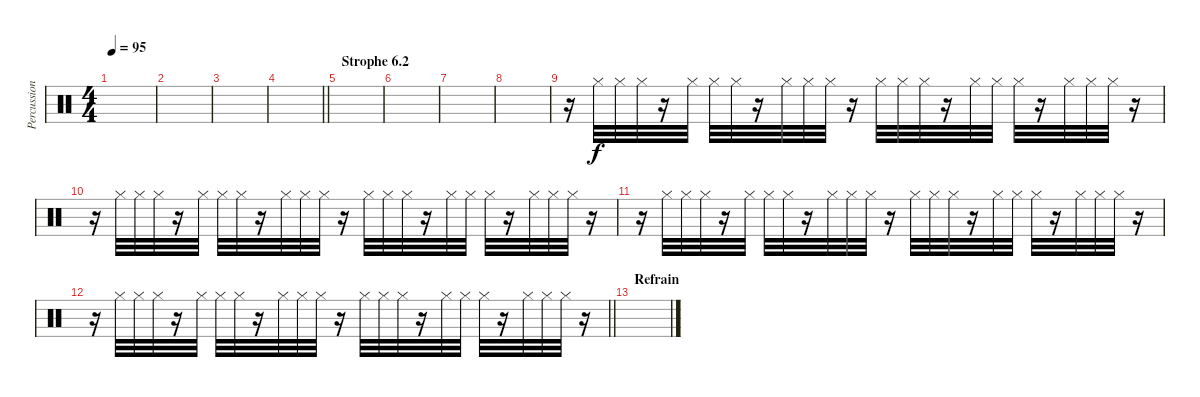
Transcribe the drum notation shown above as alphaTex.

\track ("Percussion" "Percussion") {instrument percussion}
\staff {score}
\articulation defaults
\ts (4 4)
\tempo 95
\clef neutral
\ks c
|
|
|
\barLineRight lightlight
|
\section ("" "Strophe 6.2")
|
|
|
|
r.16 "Hi-Hat (closed)".32 "Hi-Hat (closed)".32 "Hi-Hat (closed)".32 r.16 "Hi-Hat (closed)".32 "Hi-Hat (closed)".32 "Hi-Hat (closed)".32 r.16 "Hi-Hat (closed)".32 "Hi-Hat (closed)".32 "Hi-Hat (closed)".32 r.16 "Hi-Hat (closed)".32 "Hi-Hat (closed)".32 "Hi-Hat (closed)".32 r.16 "Hi-Hat (closed)".32 "Hi-Hat (closed)".32 "Hi-Hat (closed)".32 r.16 "Hi-Hat (closed)".32 "Hi-Hat (closed)".32 "Hi-Hat (closed)".32 r.16 |
r.16 "Hi-Hat (closed)".32 "Hi-Hat (closed)".32 "Hi-Hat (closed)".32 r.16 "Hi-Hat (closed)".32 "Hi-Hat (closed)".32 "Hi-Hat (closed)".32 r.16 "Hi-Hat (closed)".32 "Hi-Hat (closed)".32 "Hi-Hat (closed)".32 r.16 "Hi-Hat (closed)".32 "Hi-Hat (closed)".32 "Hi-Hat (closed)".32 r.16 "Hi-Hat (closed)".32 "Hi-Hat (closed)".32 "Hi-Hat (closed)".32 r.16 "Hi-Hat (closed)".32 "Hi-Hat (closed)".32 "Hi-Hat (closed)".32 r.16 |
r.16 "Hi-Hat (closed)".32 "Hi-Hat (closed)".32 "Hi-Hat (closed)".32 r.16 "Hi-Hat (closed)".32 "Hi-Hat (closed)".32 "Hi-Hat (closed)".32 r.16 "Hi-Hat (closed)".32 "Hi-Hat (closed)".32 "Hi-Hat (closed)".32 r.16 "Hi-Hat (closed)".32 "Hi-Hat (closed)".32 "Hi-Hat (closed)".32 r.16 "Hi-Hat (closed)".32 "Hi-Hat (closed)".32 "Hi-Hat (closed)".32 r.16 "Hi-Hat (closed)".32 "Hi-Hat (closed)".32 "Hi-Hat (closed)".32 r.16 |
\barLineRight lightlight
r.16 "Hi-Hat (closed)".32 "Hi-Hat (closed)".32 "Hi-Hat (closed)".32 r.16 "Hi-Hat (closed)".32 "Hi-Hat (closed)".32 "Hi-Hat (closed)".32 r.16 "Hi-Hat (closed)".32 "Hi-Hat (closed)".32 "Hi-Hat (closed)".32 r.16 "Hi-Hat (closed)".32 "Hi-Hat (closed)".32 "Hi-Hat (closed)".32 r.16 "Hi-Hat (closed)".32 "Hi-Hat (closed)".32 "Hi-Hat (closed)".32 r.16 "Hi-Hat (closed)".32 "Hi-Hat (closed)".32 "Hi-Hat (closed)".32 r.16 |
\section ("" "Refrain")
